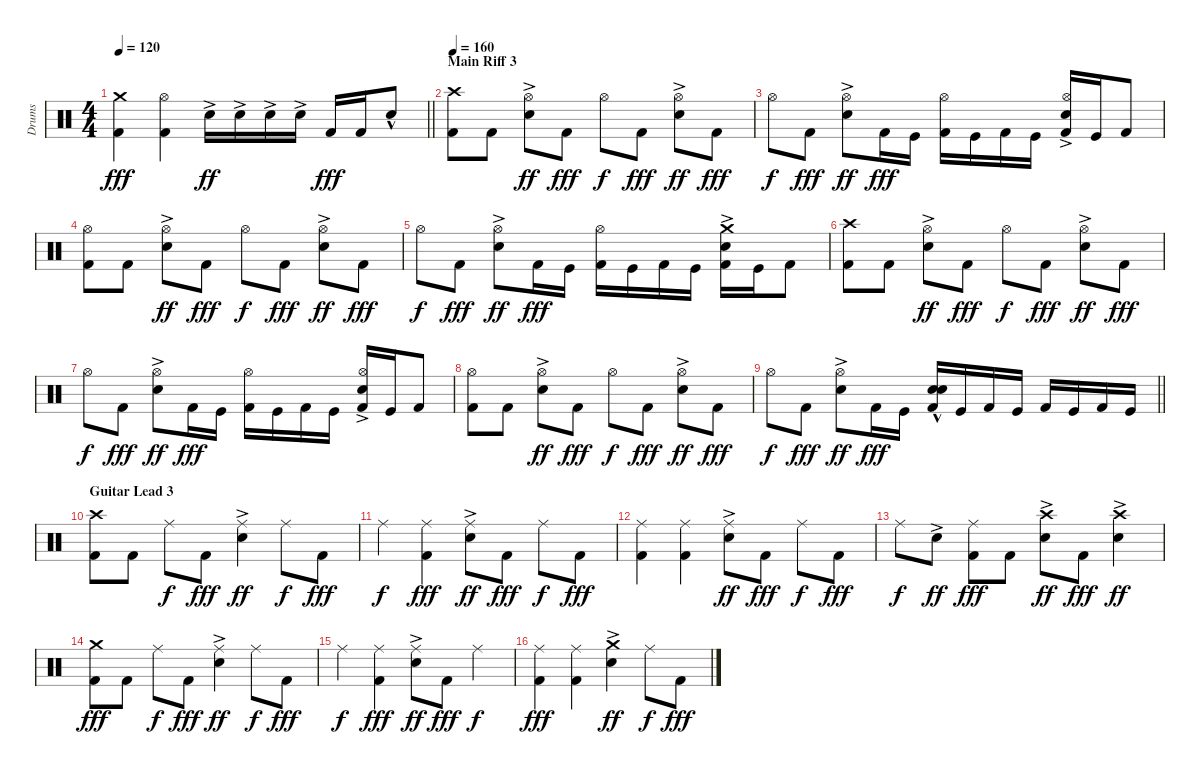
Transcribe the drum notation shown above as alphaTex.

\track ("Drums" "Drums") {instrument percussion}
\staff {score}
\articulation defaults
\ts (4 4)
\tempo 120
\clef neutral
\barLineRight lightlight
\ks c
("Crash medium (hit)" "Kick (hit) 2").4{dy fff} ("Hi-Hat (open)" "Kick (hit) 2").4 "Snare (hit) 2"{ac}.16{dy ff} "Snare (hit) 2"{ac}.16 "Snare (hit) 2"{ac}.16 "Snare (hit) 2"{ac}.16 "Kick (hit) 2".16{dy fff} "Kick (hit) 2".16 "Snare (hit) 2"{hac}.8 |
\section ("" "Main Riff 3")
\tempo 160
("Crash high (hit)" "Kick (hit) 2").8 "Kick (hit) 2".8 ("Hi-Hat (open)" "Snare (hit) 2"{ac}).8{dy ff} "Kick (hit) 2".8{dy fff} "Hi-Hat (open)".8{dy f} "Kick (hit) 2".8{dy fff} ("Hi-Hat (open)" "Snare (hit) 2"{ac}).8{dy ff} "Kick (hit) 2".8{dy fff} |
"Hi-Hat (open)".8{dy f} "Kick (hit) 2".8{dy fff} ("Hi-Hat (open)" "Snare (hit) 2"{ac}).8{dy ff} "Kick (hit) 2".16{dy fff} "Kick (hit)".16 ("Hi-Hat (open)" "Kick (hit) 2").16 "Kick (hit)".16 "Kick (hit) 2".16 "Kick (hit)".16 ("Hi-Hat (open)" "Snare (hit) 2"{ac} "Kick (hit) 2").16 "Kick (hit)".16 "Kick (hit) 2".8 |
("Hi-Hat (open)" "Kick (hit) 2").8 "Kick (hit) 2".8 ("Hi-Hat (open)" "Snare (hit) 2"{ac}).8{dy ff} "Kick (hit) 2".8{dy fff} "Hi-Hat (open)".8{dy f} "Kick (hit) 2".8{dy fff} ("Hi-Hat (open)" "Snare (hit) 2"{ac}).8{dy ff} "Kick (hit) 2".8{dy fff} |
"Hi-Hat (open)".8{dy f} "Kick (hit) 2".8{dy fff} ("Hi-Hat (open)" "Snare (hit) 2"{ac}).8{dy ff} "Kick (hit) 2".16{dy fff} "Kick (hit)".16 ("Hi-Hat (open)" "Kick (hit) 2").16 "Kick (hit)".16 "Kick (hit) 2".16 "Kick (hit)".16 ("Crash medium (hit)" "Snare (hit) 2"{ac} "Kick (hit) 2").16 "Kick (hit)".16 "Kick (hit) 2".8 |
("Crash high (hit)" "Kick (hit) 2").8 "Kick (hit) 2".8 ("Hi-Hat (open)" "Snare (hit) 2"{ac}).8{dy ff} "Kick (hit) 2".8{dy fff} "Hi-Hat (open)".8{dy f} "Kick (hit) 2".8{dy fff} ("Hi-Hat (open)" "Snare (hit) 2"{ac}).8{dy ff} "Kick (hit) 2".8{dy fff} |
"Hi-Hat (open)".8{dy f} "Kick (hit) 2".8{dy fff} ("Hi-Hat (open)" "Snare (hit) 2"{ac}).8{dy ff} "Kick (hit) 2".16{dy fff} "Kick (hit)".16 ("Hi-Hat (open)" "Kick (hit) 2").16 "Kick (hit)".16 "Kick (hit) 2".16 "Kick (hit)".16 ("Hi-Hat (open)" "Snare (hit) 2"{ac} "Kick (hit) 2").16 "Kick (hit)".16 "Kick (hit) 2".8 |
("Hi-Hat (open)" "Kick (hit) 2").8 "Kick (hit) 2".8 ("Hi-Hat (open)" "Snare (hit) 2"{ac}).8{dy ff} "Kick (hit) 2".8{dy fff} "Hi-Hat (open)".8{dy f} "Kick (hit) 2".8{dy fff} ("Hi-Hat (open)" "Snare (hit) 2"{ac}).8{dy ff} "Kick (hit) 2".8{dy fff} |
\barLineRight lightlight "Hi-Hat (open)".8{dy f} "Kick (hit) 2".8{dy fff}
("Hi-Hat (open)" "Snare (hit) 2"{ac}).8{dy ff} "Kick (hit) 2".16{dy fff} "Kick (hit)".16 ("Snare (hit) 2"{hac} "Snare (hit) 2"{hac} "Kick (hit) 2").16 "Kick (hit)".16 "Kick (hit) 2".16 "Kick (hit)".16 "Kick (hit) 2".16 "Kick (hit)".16 "Kick (hit) 2".16 "Kick (hit)".16 |
\section ("" "Guitar Lead 3")
("Crash high (hit)" "Kick (hit) 2").8 "Kick (hit) 2".8 "Ride (middle)".8{dy f} "Kick (hit) 2".8{dy fff} ("Ride (middle)" "Snare (hit) 2"{ac}).4{dy ff} "Ride (middle)".8{dy f} "Kick (hit) 2".8{dy fff} |
"Ride (middle)".4{dy f} ("Ride (middle)" "Kick (hit) 2").4{dy fff} ("Ride (middle)" "Snare (hit) 2"{ac}).8{dy ff} "Kick (hit) 2".8{dy fff} "Ride (middle)".8{dy f} "Kick (hit) 2".8{dy fff} |
("Ride (middle)" "Kick (hit) 2").4 ("Ride (middle)" "Kick (hit) 2").4 ("Ride (middle)" "Snare (hit) 2"{ac}).8{dy ff} "Kick (hit) 2".8{dy fff} "Ride (middle)".8{dy f} "Kick (hit) 2".8{dy fff} |
"Ride (middle)".8{dy f} "Snare (hit) 2"{ac}.8{dy ff} ("Ride (middle)" "Kick (hit) 2").8{dy fff} "Kick (hit) 2".8 ("Crash high (hit)" "Snare (hit) 2"{ac}).8{dy ff} "Kick (hit) 2".8{dy fff} ("Crash high (hit)" "Snare (hit) 2"{ac}).4{dy ff} |
("Crash medium (hit)" "Kick (hit) 2").8{dy fff} "Kick (hit) 2".8 "Ride (middle)".8{dy f} "Kick (hit) 2".8{dy fff} ("Ride (middle)" "Snare (hit) 2"{ac}).4{dy ff} "Ride (middle)".8{dy f} "Kick (hit) 2".8{dy fff} |
"Ride (middle)".4{dy f} ("Ride (middle)" "Kick (hit) 2").4{dy fff} ("Ride (middle)" "Snare (hit) 2"{ac}).8{dy ff} "Kick (hit) 2".8{dy fff} "Ride (middle)".4{dy f} |
("Ride (middle)" "Kick (hit) 2").4{dy fff} ("Ride (middle)" "Kick (hit) 2").4 ("Crash medium (hit)" "Snare (hit) 2"{ac}).4{dy ff} "Ride (middle)".8{dy f} "Kick (hit) 2".8{dy fff}
